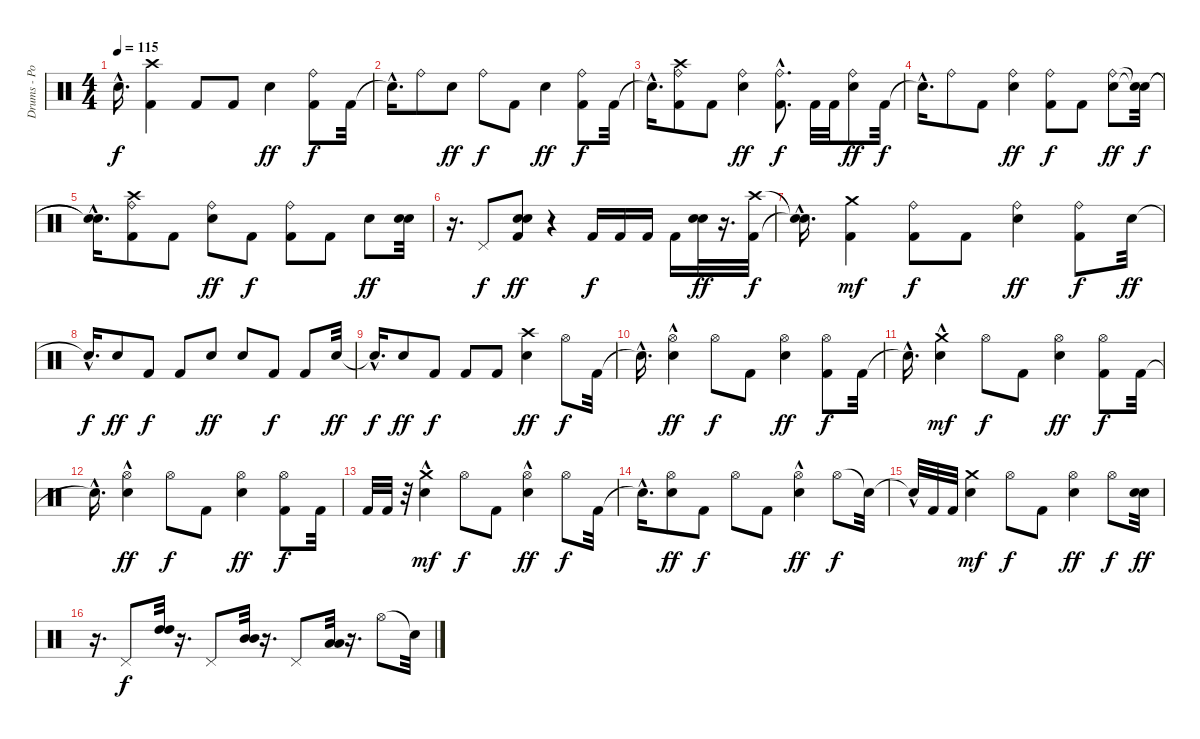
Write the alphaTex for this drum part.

\track ("Drums - Portnoy" "Drums - Po") {instrument percussion}
\staff {score}
\articulation defaults
\ts (4 4)
\tempo 115
\clef neutral
\ks c "Snare (hit)"{hac t}.16{d dy f}
("Kick (hit) 2" "Crash high (hit)").4 "Kick (hit) 2".8 "Kick (hit) 2".8 "Electric Snare (hit)".4{dy ff} ("Kick (hit) 2" "Ride (bell)").8{dy f} "Kick (hit) 2".32 |
"Snare (hit)"{hac t}.16{d} "Ride (bell)".8 "Electric Snare (hit)".8{dy ff} "Ride (bell)".8{dy f} "Kick (hit) 2".8 "Electric Snare (hit)".4{dy ff} ("Kick (hit) 2" "Ride (bell)").8{dy f} "Kick (hit) 2".32 |
"Snare (hit)"{hac t}.16{d} ("Crash high (hit)" "Kick (hit) 2" "Ride (bell)").8 "Kick (hit) 2".8 ("Ride (bell)" "Electric Snare (hit)").4{dy ff} ("Kick (hit) 2"{hac} "Ride (bell)").8{d dy f} "Kick (hit) 2".32 "Kick (hit) 2".32 ("Ride (bell)" "Electric Snare (hit)").8{dy ff} "Kick (hit) 2".32{dy f} |
"Snare (hit)"{hac t}.16{d} "Ride (bell)".8 "Kick (hit) 2".8 ("Ride (bell)" "Electric Snare (hit)").4{dy ff} ("Ride (bell)" "Kick (hit) 2").8{dy f} "Kick (hit) 2".8 ("Ride (bell)" "Electric Snare (hit)").8{dy ff} ("Snare (hit)"{t} "Snare (hit)"{t}).32{dy f} |
("Snare (hit)"{hac t} "Snare (hit)"{hac t}).16{d} ("Kick (hit) 2" "Crash high (hit)" "Ride (bell)").8 "Kick (hit) 2".8 ("Ride (bell)" "Electric Snare (hit)").8{dy ff} "Kick (hit) 2".8{dy f} ("Kick (hit) 2" "Ride (bell)").8 "Kick (hit) 2".8 "Electric Snare (hit)".8{dy ff} ("Electric Snare (hit)" "Electric Snare (hit)").32 |
r.16{d} "Pedal Hi-Hat (hit)".8{dy f} ("Kick (hit) 2" "Electric Snare (hit)" "Electric Snare (hit)").8{dy ff} r.4 "Kick (hit) 2".16{dy f} "Kick (hit) 2".16 "Kick (hit) 2".16 "Kick (hit) 2".16 ("Electric Snare (hit)" "Electric Snare (hit)").32{dy ff} r.16{d} ("Kick (hit) 2" "Crash high (hit)").32{dy f} |
("Snare (hit)"{hac t} "Snare (hit)"{hac t}).16{d} ("Kick (hit) 2" "Crash medium (hit)").4{dy mf} ("Ride (bell)" "Kick (hit) 2").8{dy f} "Kick (hit) 2".8 ("Ride (bell)" "Electric Snare (hit)").4{dy ff} ("Ride (bell)" "Kick (hit) 2").8{dy f} "Electric Snare (hit)".32{dy ff} |
"Snare (hit)"{hac t}.16{d dy f} "Electric Snare (hit)".8{dy ff} "Kick (hit) 2".8{dy f} "Kick (hit) 2".8 "Electric Snare (hit)".8{dy ff} "Electric Snare (hit)".8 "Kick (hit) 2".8{dy f} "Kick (hit) 2".8 "Electric Snare (hit)".32{dy ff} |
"Snare (hit)"{hac t}.16{d dy f} "Electric Snare (hit)".8{dy ff} "Kick (hit) 2".8{dy f} "Kick (hit) 2".8 "Kick (hit) 2".8 ("Crash high (hit)" "Electric Snare (hit)").4{dy ff} "Hi-Hat (open)".8{dy f} "Kick (hit) 2".32 |
"Snare (hit)"{hac t}.16{d} ("Hi-Hat (open)" "Electric Snare (hit)"{hac}).4{dy ff} "Hi-Hat (open)".8{dy f} "Kick (hit) 2".8 ("Hi-Hat (open)" "Electric Snare (hit)").4{dy ff} ("Kick (hit) 2" "Hi-Hat (open)").8{dy f} "Kick (hit) 2".32 |
"Snare (hit)"{hac t}.16{d} ("Electric Snare (hit)"{hac} "Crash medium (hit)").4{dy mf} "Hi-Hat (open)".8{dy f} "Kick (hit) 2".8 ("Hi-Hat (open)" "Electric Snare (hit)").4{dy ff} ("Kick (hit) 2" "Hi-Hat (open)").8{dy f} "Kick (hit) 2".32 |
"Snare (hit)"{hac t}.16{d} ("Hi-Hat (open)" "Electric Snare (hit)"{hac}).4{dy ff} "Hi-Hat (open)".8{dy f} "Kick (hit) 2".8 ("Hi-Hat (open)" "Electric Snare (hit)").4{dy ff} ("Kick (hit) 2" "Hi-Hat (open)").8{dy f} "Kick (hit) 2".32 |
"Kick (hit) 2".32 "Kick (hit) 2".32 r.32 ("Electric Snare (hit)"{hac} "Crash medium (hit)").4{dy mf} "Hi-Hat (open)".8{dy f} "Kick (hit) 2".8 ("Hi-Hat (open)" "Electric Snare (hit)"{hac}).4{dy ff} "Hi-Hat (open)".8{dy f} "Kick (hit) 2".32 |
"Snare (hit)"{hac t}.16{d} ("Hi-Hat (open)" "Electric Snare (hit)").8{dy ff} "Kick (hit) 2".8{dy f} "Hi-Hat (open)".8 "Kick (hit) 2".8 ("Hi-Hat (open)" "Electric Snare (hit)"{hac}).4{dy ff} "Hi-Hat (open)".8{dy f} "Snare (hit)"{t}.32 |
"Snare (hit)"{hac t}.32 "Kick (hit) 2".32 "Kick (hit) 2".32 ("Electric Snare (hit)" "Crash medium (hit)").4{dy mf} "Hi-Hat (open)".8{dy f} "Kick (hit) 2".8 ("Hi-Hat (open)" "Electric Snare (hit)").4{dy ff} "Hi-Hat (open)".8{dy f} ("Electric Snare (hit)" "Electric Snare (hit)").32{dy ff} |
r.16{d} "Pedal Hi-Hat (hit)".8{dy f} ("High Tom (hit)" "High Tom (hit)").32 r.16{d} "Pedal Hi-Hat (hit)".8 ("Mid Tom (hit)" "Mid Tom (hit)").32 r.16{d} "Pedal Hi-Hat (hit)".8 ("Low Tom (hit)" "Low Tom (hit)").32 r.16{d} "Hi-Hat (open)".8 "Snare (hit)"{t}.32
